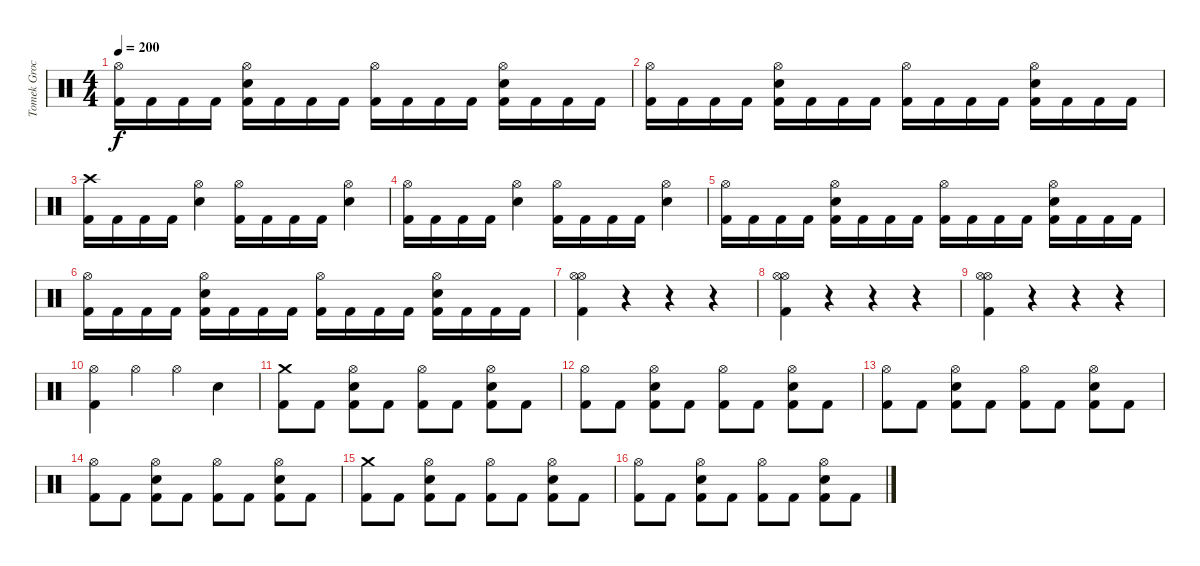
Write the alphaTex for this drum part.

\track ("Tomek Grochowski" "Tomek Groc") {instrument percussion}
\staff {score}
\articulation defaults
\ts (4 4)
\tempo 200
\clef neutral
\ks c
("Hi-Hat (open)" "Kick (hit) 2").16{dy f} "Kick (hit) 2".16 "Kick (hit) 2".16 "Kick (hit) 2".16 ("Hi-Hat (open)" "Electric Snare (hit)" "Kick (hit) 2").16 "Kick (hit) 2".16 "Kick (hit) 2".16 "Kick (hit) 2".16 ("Hi-Hat (open)" "Kick (hit) 2").16 "Kick (hit) 2".16 "Kick (hit) 2".16 "Kick (hit) 2".16 ("Hi-Hat (open)" "Electric Snare (hit)" "Kick (hit) 2").16 "Kick (hit) 2".16 "Kick (hit) 2".16 "Kick (hit) 2".16 |
("Hi-Hat (open)" "Kick (hit) 2").16 "Kick (hit) 2".16 "Kick (hit) 2".16 "Kick (hit) 2".16 ("Hi-Hat (open)" "Electric Snare (hit)" "Kick (hit) 2").16 "Kick (hit) 2".16 "Kick (hit) 2".16 "Kick (hit) 2".16 ("Hi-Hat (open)" "Kick (hit) 2").16 "Kick (hit) 2".16 "Kick (hit) 2".16 "Kick (hit) 2".16 ("Hi-Hat (open)" "Electric Snare (hit)" "Kick (hit) 2").16 "Kick (hit) 2".16 "Kick (hit) 2".16 "Kick (hit) 2".16 |
("Crash high (hit)" "Kick (hit) 2").16 "Kick (hit) 2".16 "Kick (hit) 2".16 "Kick (hit) 2".16 ("Hi-Hat (open)" "Electric Snare (hit)").4 ("Hi-Hat (open)" "Kick (hit) 2").16 "Kick (hit) 2".16 "Kick (hit) 2".16 "Kick (hit) 2".16 ("Hi-Hat (open)" "Electric Snare (hit)").4 |
("Hi-Hat (open)" "Kick (hit) 2").16 "Kick (hit) 2".16 "Kick (hit) 2".16 "Kick (hit) 2".16 ("Hi-Hat (open)" "Electric Snare (hit)").4 ("Hi-Hat (open)" "Kick (hit) 2").16 "Kick (hit) 2".16 "Kick (hit) 2".16 "Kick (hit) 2".16 ("Hi-Hat (open)" "Electric Snare (hit)").4 |
("Hi-Hat (open)" "Kick (hit) 2").16 "Kick (hit) 2".16 "Kick (hit) 2".16 "Kick (hit) 2".16 ("Hi-Hat (open)" "Electric Snare (hit)" "Kick (hit) 2").16 "Kick (hit) 2".16 "Kick (hit) 2".16 "Kick (hit) 2".16 ("Hi-Hat (open)" "Kick (hit) 2").16 "Kick (hit) 2".16 "Kick (hit) 2".16 "Kick (hit) 2".16 ("Hi-Hat (open)" "Electric Snare (hit)" "Kick (hit) 2").16 "Kick (hit) 2".16 "Kick (hit) 2".16 "Kick (hit) 2".16 |
("Hi-Hat (open)" "Kick (hit) 2").16 "Kick (hit) 2".16 "Kick (hit) 2".16 "Kick (hit) 2".16 ("Hi-Hat (open)" "Electric Snare (hit)" "Kick (hit) 2").16 "Kick (hit) 2".16 "Kick (hit) 2".16 "Kick (hit) 2".16 ("Hi-Hat (open)" "Kick (hit) 2").16 "Kick (hit) 2".16 "Kick (hit) 2".16 "Kick (hit) 2".16 ("Hi-Hat (open)" "Electric Snare (hit)" "Kick (hit) 2").16 "Kick (hit) 2".16 "Kick (hit) 2".16 "Kick (hit) 2".16 |
("Hi-Hat (open)" "Hi-Hat (open)" "Kick (hit) 2").4 r.4 r.4 r.4 |
("Hi-Hat (open)" "Hi-Hat (open)" "Kick (hit) 2").4 r.4 r.4 r.4 |
("Hi-Hat (open)" "Hi-Hat (open)" "Kick (hit) 2").4 r.4 r.4 r.4 |
("Hi-Hat (open)" "Kick (hit) 2").4 "Hi-Hat (open)".4 "Hi-Hat (open)".4 "Electric Snare (hit)".4 |
("Crash medium (hit)" "Kick (hit) 2").8 "Kick (hit) 2".8 ("Hi-Hat (open)" "Electric Snare (hit)" "Kick (hit) 2").8 "Kick (hit) 2".8 ("Hi-Hat (open)" "Kick (hit) 2").8 "Kick (hit) 2".8 ("Hi-Hat (open)" "Electric Snare (hit)" "Kick (hit) 2").8 "Kick (hit) 2".8 |
("Hi-Hat (open)" "Kick (hit) 2").8 "Kick (hit) 2".8 ("Hi-Hat (open)" "Electric Snare (hit)" "Kick (hit) 2").8 "Kick (hit) 2".8 ("Hi-Hat (open)" "Kick (hit) 2").8 "Kick (hit) 2".8 ("Hi-Hat (open)" "Electric Snare (hit)" "Kick (hit) 2").8 "Kick (hit) 2".8 |
("Hi-Hat (open)" "Kick (hit) 2").8 "Kick (hit) 2".8 ("Hi-Hat (open)" "Electric Snare (hit)" "Kick (hit) 2").8 "Kick (hit) 2".8 ("Hi-Hat (open)" "Kick (hit) 2").8 "Kick (hit) 2".8 ("Hi-Hat (open)" "Electric Snare (hit)" "Kick (hit) 2").8 "Kick (hit) 2".8 |
("Hi-Hat (open)" "Kick (hit) 2").8 "Kick (hit) 2".8 ("Hi-Hat (open)" "Electric Snare (hit)" "Kick (hit) 2").8 "Kick (hit) 2".8 ("Hi-Hat (open)" "Kick (hit) 2").8 "Kick (hit) 2".8 ("Hi-Hat (open)" "Electric Snare (hit)" "Kick (hit) 2").8 "Kick (hit) 2".8 |
("Crash medium (hit)" "Kick (hit) 2").8 "Kick (hit) 2".8 ("Hi-Hat (open)" "Electric Snare (hit)" "Kick (hit) 2").8 "Kick (hit) 2".8 ("Hi-Hat (open)" "Kick (hit) 2").8 "Kick (hit) 2".8 ("Hi-Hat (open)" "Electric Snare (hit)" "Kick (hit) 2").8 "Kick (hit) 2".8 |
("Hi-Hat (open)" "Kick (hit) 2").8 "Kick (hit) 2".8 ("Hi-Hat (open)" "Electric Snare (hit)" "Kick (hit) 2").8 "Kick (hit) 2".8 ("Hi-Hat (open)" "Kick (hit) 2").8 "Kick (hit) 2".8 ("Hi-Hat (open)" "Electric Snare (hit)" "Kick (hit) 2").8 "Kick (hit) 2".8
